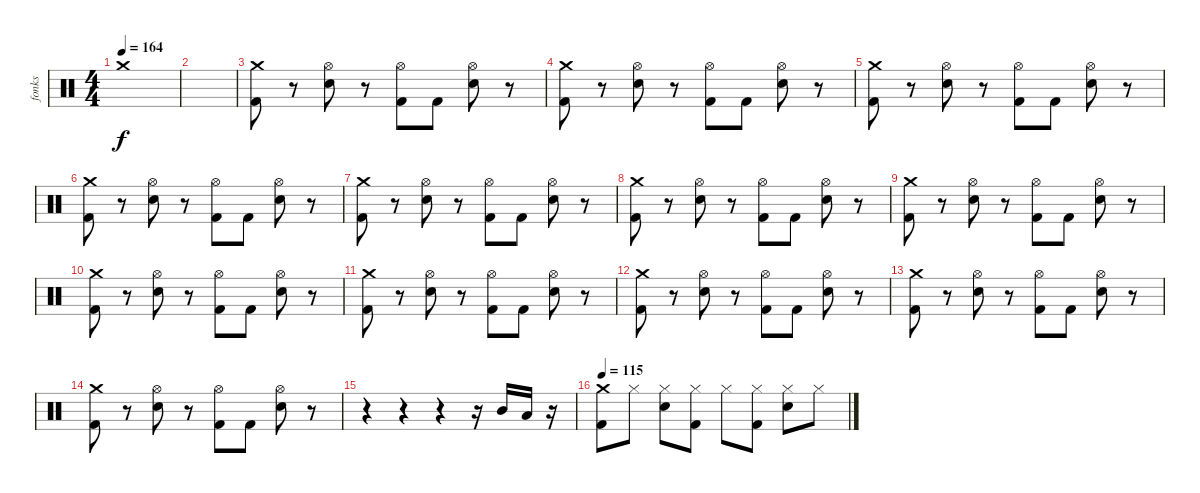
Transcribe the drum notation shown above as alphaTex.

\track ("fonks" "fonks") {instrument percussion}
\staff {score}
\articulation defaults
\ts (4 4)
\tempo 164
\clef neutral
\ks c "Crash medium (hit)".1{dy f}
|
|
("Crash medium (hit)" "Kick (hit) 2").8 r.8 ("Hi-Hat (open)" "Snare (hit) 2").8 r.8 ("Hi-Hat (open)" "Kick (hit) 2").8 "Kick (hit) 2".8 ("Hi-Hat (open)" "Snare (hit) 2").8 r.8 |
("Crash medium (hit)" "Kick (hit) 2").8 r.8 ("Hi-Hat (open)" "Snare (hit) 2").8 r.8 ("Hi-Hat (open)" "Kick (hit) 2").8 "Kick (hit) 2".8 ("Hi-Hat (open)" "Snare (hit) 2").8 r.8 |
("Crash medium (hit)" "Kick (hit) 2").8 r.8 ("Hi-Hat (open)" "Snare (hit) 2").8 r.8 ("Hi-Hat (open)" "Kick (hit) 2").8 "Kick (hit) 2".8 ("Hi-Hat (open)" "Snare (hit) 2").8 r.8 |
("Crash medium (hit)" "Kick (hit) 2").8 r.8 ("Hi-Hat (open)" "Snare (hit) 2").8 r.8 ("Hi-Hat (open)" "Kick (hit) 2").8 "Kick (hit) 2".8 ("Hi-Hat (open)" "Snare (hit) 2").8 r.8 |
("Crash medium (hit)" "Kick (hit) 2").8 r.8 ("Hi-Hat (open)" "Snare (hit) 2").8 r.8 ("Hi-Hat (open)" "Kick (hit) 2").8 "Kick (hit) 2".8 ("Hi-Hat (open)" "Snare (hit) 2").8 r.8 |
("Crash medium (hit)" "Kick (hit) 2").8 r.8 ("Hi-Hat (open)" "Snare (hit) 2").8 r.8 ("Hi-Hat (open)" "Kick (hit) 2").8 "Kick (hit) 2".8 ("Hi-Hat (open)" "Snare (hit) 2").8 r.8 |
("Crash medium (hit)" "Kick (hit) 2").8 r.8 ("Hi-Hat (open)" "Snare (hit) 2").8 r.8 ("Hi-Hat (open)" "Kick (hit) 2").8 "Kick (hit) 2".8 ("Hi-Hat (open)" "Snare (hit) 2").8 r.8 |
("Crash medium (hit)" "Kick (hit) 2").8 r.8 ("Hi-Hat (open)" "Snare (hit) 2").8 r.8 ("Hi-Hat (open)" "Kick (hit) 2").8 "Kick (hit) 2".8 ("Hi-Hat (open)" "Snare (hit) 2").8 r.8 |
("Crash medium (hit)" "Kick (hit) 2").8 r.8 ("Hi-Hat (open)" "Snare (hit) 2").8 r.8 ("Hi-Hat (open)" "Kick (hit) 2").8 "Kick (hit) 2".8 ("Hi-Hat (open)" "Snare (hit) 2").8 r.8 |
("Crash medium (hit)" "Kick (hit) 2").8 r.8 ("Hi-Hat (open)" "Snare (hit) 2").8 r.8 ("Hi-Hat (open)" "Kick (hit) 2").8 "Kick (hit) 2".8 ("Hi-Hat (open)" "Snare (hit) 2").8 r.8 |
("Crash medium (hit)" "Kick (hit) 2").8 r.8 ("Hi-Hat (open)" "Snare (hit) 2").8 r.8 ("Hi-Hat (open)" "Kick (hit) 2").8 "Kick (hit) 2".8 ("Hi-Hat (open)" "Snare (hit) 2").8 r.8 |
("Crash medium (hit)" "Kick (hit) 2").8 r.8 ("Hi-Hat (open)" "Snare (hit) 2").8 r.8 ("Hi-Hat (open)" "Kick (hit) 2").8 "Kick (hit) 2".8 ("Hi-Hat (open)" "Snare (hit) 2").8 r.8 |
r.4 r.4 r.4 r.16 "Mid Tom (hit)".16 "Low Floor Tom (hit)".16 r.16 |
\tempo 115
("Crash medium (hit)" "Kick (hit) 2").8 "Hi-Hat (closed)".8 ("Hi-Hat (closed)" "Snare (hit) 2").8 ("Hi-Hat (closed)" "Kick (hit) 2").8 "Hi-Hat (closed)".8 ("Hi-Hat (closed)" "Kick (hit) 2").8 ("Hi-Hat (closed)" "Snare (hit) 2").8 "Hi-Hat (closed)".8
